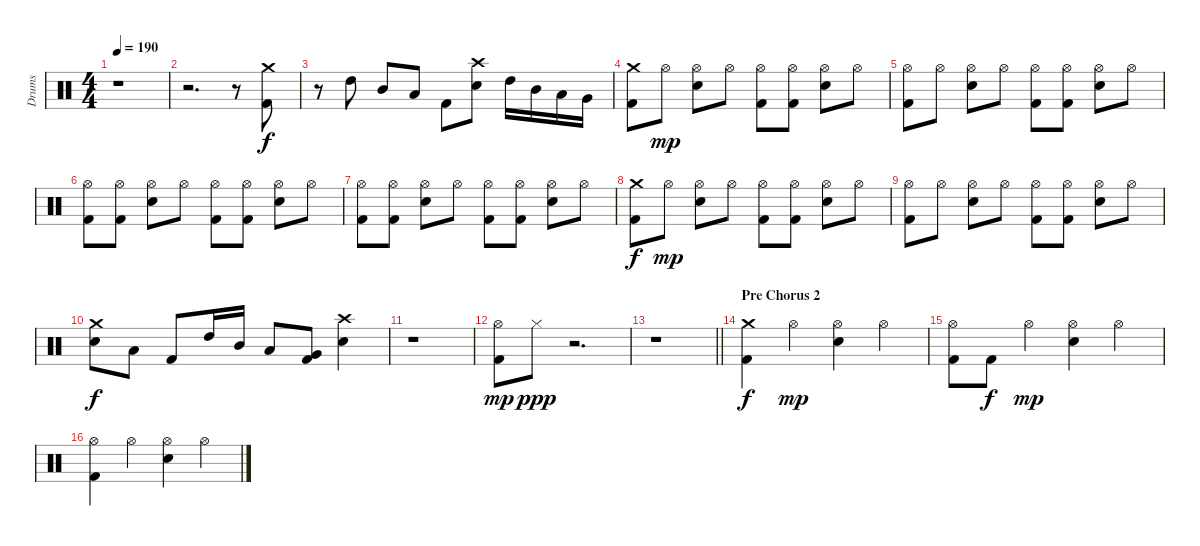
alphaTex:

\track ("Drums" "Drums") {instrument percussion}
\staff {score}
\articulation defaults
\ts (4 4)
\tempo 190
\clef neutral
\ks c
r.1{dy mp} |
r.2{d} r.8 ("Crash medium (hit)" "Kick (hit) 2").8{dy f} |
r.8 "High Tom (hit)".8 "Mid Tom (hit)".8 "Low Tom (hit)".8 "Kick (hit) 2".8 ("Crash high (hit)" "Snare (hit) 2").8 "High Tom (hit)".16 "Mid Tom (hit)".16 "Low Tom (hit)".16 "Very Low Tom (hit)".16 |
("Crash medium (hit)" "Kick (hit) 2").8 "Hi-Hat (open)".8{dy mp} ("Hi-Hat (open)" "Snare (hit) 2").8 "Hi-Hat (open)".8 ("Hi-Hat (open)" "Kick (hit) 2").8 ("Hi-Hat (open)" "Kick (hit) 2").8 ("Hi-Hat (open)" "Snare (hit) 2").8 "Hi-Hat (open)".8 |
("Hi-Hat (open)" "Kick (hit) 2").8 "Hi-Hat (open)".8 ("Hi-Hat (open)" "Snare (hit) 2").8 "Hi-Hat (open)".8 ("Hi-Hat (open)" "Kick (hit) 2").8 ("Hi-Hat (open)" "Kick (hit) 2").8 ("Hi-Hat (open)" "Snare (hit) 2").8 "Hi-Hat (open)".8 |
("Hi-Hat (open)" "Kick (hit) 2").8 ("Hi-Hat (open)" "Kick (hit) 2").8 ("Hi-Hat (open)" "Snare (hit) 2").8 "Hi-Hat (open)".8 ("Hi-Hat (open)" "Kick (hit) 2").8 ("Hi-Hat (open)" "Kick (hit) 2").8 ("Hi-Hat (open)" "Snare (hit) 2").8 "Hi-Hat (open)".8 |
("Hi-Hat (open)" "Kick (hit) 2").8 ("Hi-Hat (open)" "Kick (hit) 2").8 ("Hi-Hat (open)" "Snare (hit) 2").8 "Hi-Hat (open)".8 ("Hi-Hat (open)" "Kick (hit) 2").8 ("Hi-Hat (open)" "Kick (hit) 2").8 ("Hi-Hat (open)" "Snare (hit) 2").8 "Hi-Hat (open)".8 |
("Crash medium (hit)" "Kick (hit) 2").8{dy f} "Hi-Hat (open)".8{dy mp} ("Hi-Hat (open)" "Snare (hit) 2").8 "Hi-Hat (open)".8 ("Hi-Hat (open)" "Kick (hit) 2").8 ("Hi-Hat (open)" "Kick (hit) 2").8 ("Hi-Hat (open)" "Snare (hit) 2").8 "Hi-Hat (open)".8 |
("Hi-Hat (open)" "Kick (hit) 2").8 "Hi-Hat (open)".8 ("Hi-Hat (open)" "Snare (hit) 2").8 "Hi-Hat (open)".8 ("Hi-Hat (open)" "Kick (hit) 2").8 ("Hi-Hat (open)" "Kick (hit) 2").8 ("Hi-Hat (open)" "Snare (hit) 2").8 "Hi-Hat (open)".8 |
("Crash medium (hit)" "Snare (hit) 2").8{dy f} "Low Tom (hit)".8 "Kick (hit) 2".8 "High Tom (hit)".16 "Mid Tom (hit)".16 "Low Tom (hit)".8 ("Very Low Tom (hit)" "Kick (hit) 2").8 ("Crash high (hit)" "Snare (hit) 2").4 |
r.1 |
("Hi-Hat (open)" "Kick (hit) 2").8{dy mp} "Hi-Hat (closed)".8{dy ppp} r.2{d} |
\barLineRight lightlight
r.1 |
\section ("" "Pre Chorus 2")
("Crash medium (hit)" "Kick (hit) 2").4{dy f} "Hi-Hat (open)".4{dy mp} ("Hi-Hat (open)" "Snare (hit) 2").4 "Hi-Hat (open)".4 |
("Hi-Hat (open)" "Kick (hit) 2").8 "Kick (hit) 2".8{dy f} "Hi-Hat (open)".4{dy mp} ("Hi-Hat (open)" "Snare (hit) 2").4 "Hi-Hat (open)".4 |
("Hi-Hat (open)" "Kick (hit) 2").4 "Hi-Hat (open)".4 ("Hi-Hat (open)" "Snare (hit) 2").4 "Hi-Hat (open)".4
